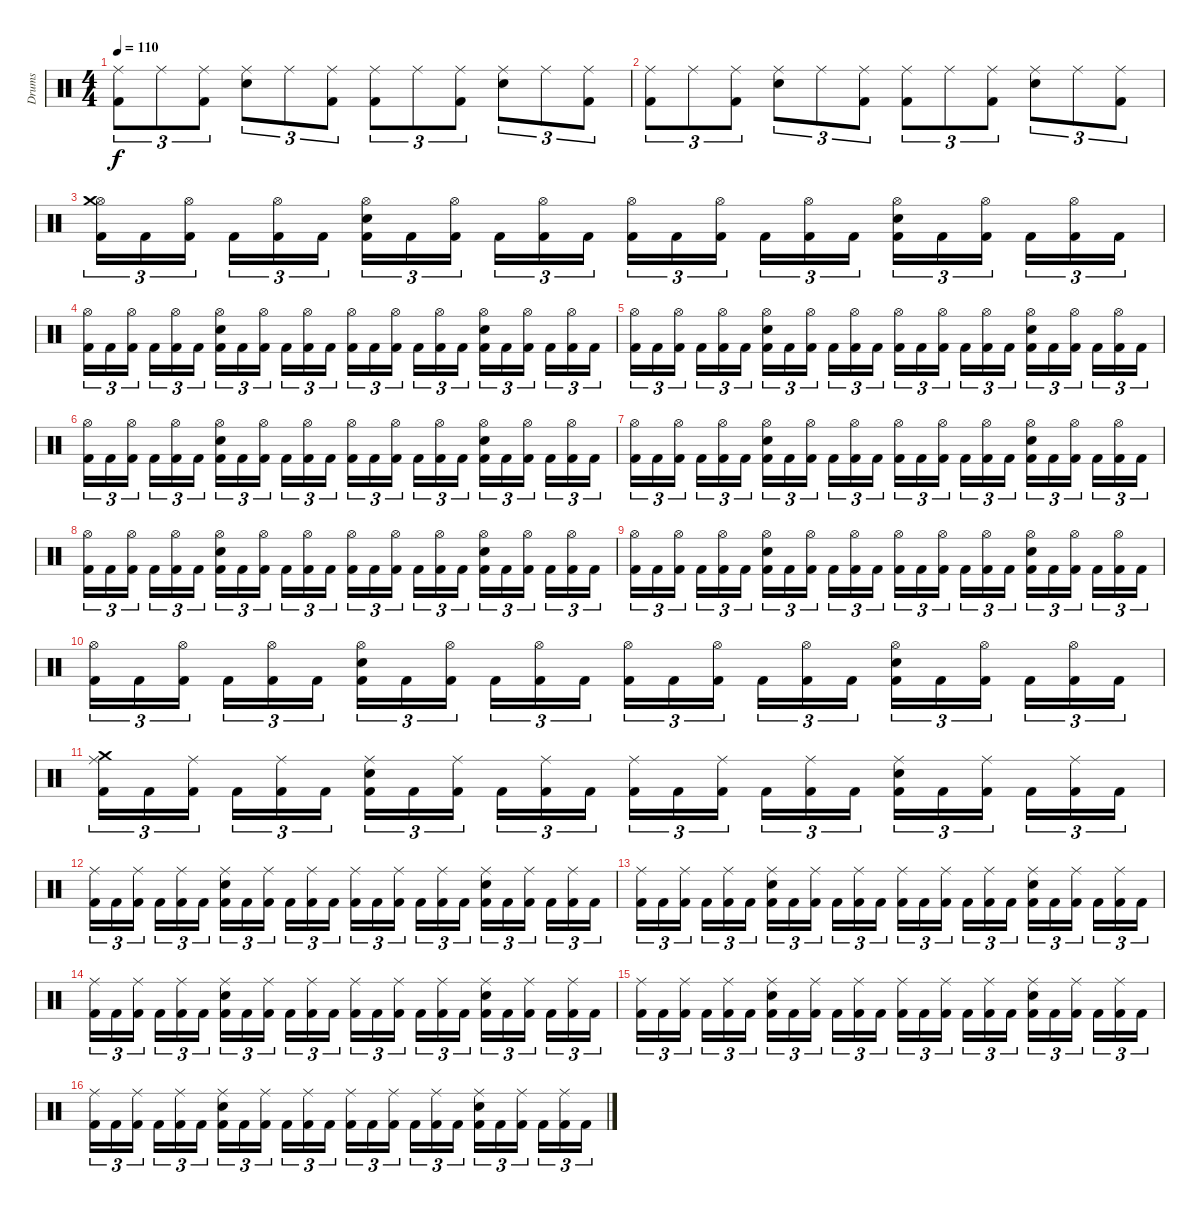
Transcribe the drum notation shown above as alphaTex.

\track ("Drums" "Drums") {instrument percussion}
\staff {score}
\articulation defaults
\ts (4 4)
\tempo 110
\clef neutral
\ks c
("Kick (hit) 2" "Ride (middle)").8{tu (3 2) dy f} "Ride (middle)".8{tu (3 2)} ("Kick (hit) 2" "Ride (middle)").8{tu (3 2)} ("Snare (hit) 2" "Ride (middle)").8{tu (3 2)} "Ride (middle)".8{tu (3 2)} ("Kick (hit) 2" "Ride (middle)").8{tu (3 2)} ("Kick (hit) 2" "Ride (middle)").8{tu (3 2)} "Ride (middle)".8{tu (3 2)} ("Kick (hit) 2" "Ride (middle)").8{tu (3 2)} ("Snare (hit) 2" "Ride (middle)").8{tu (3 2)} "Ride (middle)".8{tu (3 2)} ("Kick (hit) 2" "Ride (middle)").8{tu (3 2)} |
("Kick (hit) 2" "Ride (middle)").8{tu (3 2)} "Ride (middle)".8{tu (3 2)} ("Kick (hit) 2" "Ride (middle)").8{tu (3 2)} ("Snare (hit) 2" "Ride (middle)").8{tu (3 2)} "Ride (middle)".8{tu (3 2)} ("Kick (hit) 2" "Ride (middle)").8{tu (3 2)} ("Kick (hit) 2" "Ride (middle)").8{tu (3 2)} "Ride (middle)".8{tu (3 2)} ("Kick (hit) 2" "Ride (middle)").8{tu (3 2)} ("Snare (hit) 2" "Ride (middle)").8{tu (3 2)} "Ride (middle)".8{tu (3 2)} ("Kick (hit) 2" "Ride (middle)").8{tu (3 2)} |
("Kick (hit) 2" "Hi-Hat (open)" "Crash medium (hit)").16{tu (3 2)} "Kick (hit) 2".16{tu (3 2)} ("Kick (hit) 2" "Hi-Hat (open)").16{tu (3 2)} "Kick (hit) 2".16{tu (3 2)} ("Kick (hit) 2" "Hi-Hat (open)").16{tu (3 2)} "Kick (hit) 2".16{tu (3 2)} ("Kick (hit) 2" "Snare (hit) 2" "Hi-Hat (open)").16{tu (3 2)} "Kick (hit) 2".16{tu (3 2)} ("Kick (hit) 2" "Hi-Hat (open)").16{tu (3 2)} "Kick (hit) 2".16{tu (3 2)} ("Kick (hit) 2" "Hi-Hat (open)").16{tu (3 2)} "Kick (hit) 2".16{tu (3 2)} ("Kick (hit) 2" "Hi-Hat (open)").16{tu (3 2)} "Kick (hit) 2".16{tu (3 2)} ("Kick (hit) 2" "Hi-Hat (open)").16{tu (3 2)} "Kick (hit) 2".16{tu (3 2)} ("Kick (hit) 2" "Hi-Hat (open)").16{tu (3 2)} "Kick (hit) 2".16{tu (3 2)} ("Kick (hit) 2" "Snare (hit) 2" "Hi-Hat (open)").16{tu (3 2)} "Kick (hit) 2".16{tu (3 2)} ("Kick (hit) 2" "Hi-Hat (open)").16{tu (3 2)} "Kick (hit) 2".16{tu (3 2)} ("Kick (hit) 2" "Hi-Hat (open)").16{tu (3 2)} "Kick (hit) 2".16{tu (3 2)} |
("Kick (hit) 2" "Hi-Hat (open)").16{tu (3 2)} "Kick (hit) 2".16{tu (3 2)} ("Kick (hit) 2" "Hi-Hat (open)").16{tu (3 2)} "Kick (hit) 2".16{tu (3 2)} ("Kick (hit) 2" "Hi-Hat (open)").16{tu (3 2)} "Kick (hit) 2".16{tu (3 2)} ("Kick (hit) 2" "Snare (hit) 2" "Hi-Hat (open)").16{tu (3 2)} "Kick (hit) 2".16{tu (3 2)} ("Kick (hit) 2" "Hi-Hat (open)").16{tu (3 2)} "Kick (hit) 2".16{tu (3 2)} ("Kick (hit) 2" "Hi-Hat (open)").16{tu (3 2)} "Kick (hit) 2".16{tu (3 2)} ("Kick (hit) 2" "Hi-Hat (open)").16{tu (3 2)} "Kick (hit) 2".16{tu (3 2)} ("Kick (hit) 2" "Hi-Hat (open)").16{tu (3 2)} "Kick (hit) 2".16{tu (3 2)} ("Kick (hit) 2" "Hi-Hat (open)").16{tu (3 2)} "Kick (hit) 2".16{tu (3 2)} ("Kick (hit) 2" "Snare (hit) 2" "Hi-Hat (open)").16{tu (3 2)} "Kick (hit) 2".16{tu (3 2)} ("Kick (hit) 2" "Hi-Hat (open)").16{tu (3 2)} "Kick (hit) 2".16{tu (3 2)} ("Kick (hit) 2" "Hi-Hat (open)").16{tu (3 2)} "Kick (hit) 2".16{tu (3 2)} |
("Kick (hit) 2" "Hi-Hat (open)").16{tu (3 2)} "Kick (hit) 2".16{tu (3 2)} ("Kick (hit) 2" "Hi-Hat (open)").16{tu (3 2)} "Kick (hit) 2".16{tu (3 2)} ("Kick (hit) 2" "Hi-Hat (open)").16{tu (3 2)} "Kick (hit) 2".16{tu (3 2)} ("Kick (hit) 2" "Snare (hit) 2" "Hi-Hat (open)").16{tu (3 2)} "Kick (hit) 2".16{tu (3 2)} ("Kick (hit) 2" "Hi-Hat (open)").16{tu (3 2)} "Kick (hit) 2".16{tu (3 2)} ("Kick (hit) 2" "Hi-Hat (open)").16{tu (3 2)} "Kick (hit) 2".16{tu (3 2)} ("Kick (hit) 2" "Hi-Hat (open)").16{tu (3 2)} "Kick (hit) 2".16{tu (3 2)} ("Kick (hit) 2" "Hi-Hat (open)").16{tu (3 2)} "Kick (hit) 2".16{tu (3 2)} ("Kick (hit) 2" "Hi-Hat (open)").16{tu (3 2)} "Kick (hit) 2".16{tu (3 2)} ("Kick (hit) 2" "Snare (hit) 2" "Hi-Hat (open)").16{tu (3 2)} "Kick (hit) 2".16{tu (3 2)} ("Kick (hit) 2" "Hi-Hat (open)").16{tu (3 2)} "Kick (hit) 2".16{tu (3 2)} ("Kick (hit) 2" "Hi-Hat (open)").16{tu (3 2)} "Kick (hit) 2".16{tu (3 2)} |
("Kick (hit) 2" "Hi-Hat (open)").16{tu (3 2)} "Kick (hit) 2".16{tu (3 2)} ("Kick (hit) 2" "Hi-Hat (open)").16{tu (3 2)} "Kick (hit) 2".16{tu (3 2)} ("Kick (hit) 2" "Hi-Hat (open)").16{tu (3 2)} "Kick (hit) 2".16{tu (3 2)} ("Kick (hit) 2" "Snare (hit) 2" "Hi-Hat (open)").16{tu (3 2)} "Kick (hit) 2".16{tu (3 2)} ("Kick (hit) 2" "Hi-Hat (open)").16{tu (3 2)} "Kick (hit) 2".16{tu (3 2)} ("Kick (hit) 2" "Hi-Hat (open)").16{tu (3 2)} "Kick (hit) 2".16{tu (3 2)} ("Kick (hit) 2" "Hi-Hat (open)").16{tu (3 2)} "Kick (hit) 2".16{tu (3 2)} ("Kick (hit) 2" "Hi-Hat (open)").16{tu (3 2)} "Kick (hit) 2".16{tu (3 2)} ("Kick (hit) 2" "Hi-Hat (open)").16{tu (3 2)} "Kick (hit) 2".16{tu (3 2)} ("Kick (hit) 2" "Snare (hit) 2" "Hi-Hat (open)").16{tu (3 2)} "Kick (hit) 2".16{tu (3 2)} ("Kick (hit) 2" "Hi-Hat (open)").16{tu (3 2)} "Kick (hit) 2".16{tu (3 2)} ("Kick (hit) 2" "Hi-Hat (open)").16{tu (3 2)} "Kick (hit) 2".16{tu (3 2)} |
("Kick (hit) 2" "Hi-Hat (open)").16{tu (3 2)} "Kick (hit) 2".16{tu (3 2)} ("Kick (hit) 2" "Hi-Hat (open)").16{tu (3 2)} "Kick (hit) 2".16{tu (3 2)} ("Kick (hit) 2" "Hi-Hat (open)").16{tu (3 2)} "Kick (hit) 2".16{tu (3 2)} ("Kick (hit) 2" "Snare (hit) 2" "Hi-Hat (open)").16{tu (3 2)} "Kick (hit) 2".16{tu (3 2)} ("Kick (hit) 2" "Hi-Hat (open)").16{tu (3 2)} "Kick (hit) 2".16{tu (3 2)} ("Kick (hit) 2" "Hi-Hat (open)").16{tu (3 2)} "Kick (hit) 2".16{tu (3 2)} ("Kick (hit) 2" "Hi-Hat (open)").16{tu (3 2)} "Kick (hit) 2".16{tu (3 2)} ("Kick (hit) 2" "Hi-Hat (open)").16{tu (3 2)} "Kick (hit) 2".16{tu (3 2)} ("Kick (hit) 2" "Hi-Hat (open)").16{tu (3 2)} "Kick (hit) 2".16{tu (3 2)} ("Kick (hit) 2" "Snare (hit) 2" "Hi-Hat (open)").16{tu (3 2)} "Kick (hit) 2".16{tu (3 2)} ("Kick (hit) 2" "Hi-Hat (open)").16{tu (3 2)} "Kick (hit) 2".16{tu (3 2)} ("Kick (hit) 2" "Hi-Hat (open)").16{tu (3 2)} "Kick (hit) 2".16{tu (3 2)} |
("Kick (hit) 2" "Hi-Hat (open)").16{tu (3 2)} "Kick (hit) 2".16{tu (3 2)} ("Kick (hit) 2" "Hi-Hat (open)").16{tu (3 2)} "Kick (hit) 2".16{tu (3 2)} ("Kick (hit) 2" "Hi-Hat (open)").16{tu (3 2)} "Kick (hit) 2".16{tu (3 2)} ("Kick (hit) 2" "Snare (hit) 2" "Hi-Hat (open)").16{tu (3 2)} "Kick (hit) 2".16{tu (3 2)} ("Kick (hit) 2" "Hi-Hat (open)").16{tu (3 2)} "Kick (hit) 2".16{tu (3 2)} ("Kick (hit) 2" "Hi-Hat (open)").16{tu (3 2)} "Kick (hit) 2".16{tu (3 2)} ("Kick (hit) 2" "Hi-Hat (open)").16{tu (3 2)} "Kick (hit) 2".16{tu (3 2)} ("Kick (hit) 2" "Hi-Hat (open)").16{tu (3 2)} "Kick (hit) 2".16{tu (3 2)} ("Kick (hit) 2" "Hi-Hat (open)").16{tu (3 2)} "Kick (hit) 2".16{tu (3 2)} ("Kick (hit) 2" "Snare (hit) 2" "Hi-Hat (open)").16{tu (3 2)} "Kick (hit) 2".16{tu (3 2)} ("Kick (hit) 2" "Hi-Hat (open)").16{tu (3 2)} "Kick (hit) 2".16{tu (3 2)} ("Kick (hit) 2" "Hi-Hat (open)").16{tu (3 2)} "Kick (hit) 2".16{tu (3 2)} |
("Kick (hit) 2" "Hi-Hat (open)").16{tu (3 2)} "Kick (hit) 2".16{tu (3 2)} ("Kick (hit) 2" "Hi-Hat (open)").16{tu (3 2)} "Kick (hit) 2".16{tu (3 2)} ("Kick (hit) 2" "Hi-Hat (open)").16{tu (3 2)} "Kick (hit) 2".16{tu (3 2)} ("Kick (hit) 2" "Snare (hit) 2" "Hi-Hat (open)").16{tu (3 2)} "Kick (hit) 2".16{tu (3 2)} ("Kick (hit) 2" "Hi-Hat (open)").16{tu (3 2)} "Kick (hit) 2".16{tu (3 2)} ("Kick (hit) 2" "Hi-Hat (open)").16{tu (3 2)} "Kick (hit) 2".16{tu (3 2)} ("Kick (hit) 2" "Hi-Hat (open)").16{tu (3 2)} "Kick (hit) 2".16{tu (3 2)} ("Kick (hit) 2" "Hi-Hat (open)").16{tu (3 2)} "Kick (hit) 2".16{tu (3 2)} ("Kick (hit) 2" "Hi-Hat (open)").16{tu (3 2)} "Kick (hit) 2".16{tu (3 2)} ("Kick (hit) 2" "Snare (hit) 2" "Hi-Hat (open)").16{tu (3 2)} "Kick (hit) 2".16{tu (3 2)} ("Kick (hit) 2" "Hi-Hat (open)").16{tu (3 2)} "Kick (hit) 2".16{tu (3 2)} ("Kick (hit) 2" "Hi-Hat (open)").16{tu (3 2)} "Kick (hit) 2".16{tu (3 2)} |
("Kick (hit) 2" "Hi-Hat (open)").16{tu (3 2)} "Kick (hit) 2".16{tu (3 2)} ("Kick (hit) 2" "Hi-Hat (open)").16{tu (3 2)} "Kick (hit) 2".16{tu (3 2)} ("Kick (hit) 2" "Hi-Hat (open)").16{tu (3 2)} "Kick (hit) 2".16{tu (3 2)} ("Kick (hit) 2" "Snare (hit) 2" "Hi-Hat (open)").16{tu (3 2)} "Kick (hit) 2".16{tu (3 2)} ("Kick (hit) 2" "Hi-Hat (open)").16{tu (3 2)} "Kick (hit) 2".16{tu (3 2)} ("Kick (hit) 2" "Hi-Hat (open)").16{tu (3 2)} "Kick (hit) 2".16{tu (3 2)} ("Kick (hit) 2" "Hi-Hat (open)").16{tu (3 2)} "Kick (hit) 2".16{tu (3 2)} ("Kick (hit) 2" "Hi-Hat (open)").16{tu (3 2)} "Kick (hit) 2".16{tu (3 2)} ("Kick (hit) 2" "Hi-Hat (open)").16{tu (3 2)} "Kick (hit) 2".16{tu (3 2)} ("Kick (hit) 2" "Snare (hit) 2" "Hi-Hat (open)").16{tu (3 2)} "Kick (hit) 2".16{tu (3 2)} ("Kick (hit) 2" "Hi-Hat (open)").16{tu (3 2)} "Kick (hit) 2".16{tu (3 2)} ("Kick (hit) 2" "Hi-Hat (open)").16{tu (3 2)} "Kick (hit) 2".16{tu (3 2)} |
("Kick (hit) 2" "Ride (middle)" "Crash medium (hit)").16{tu (3 2) volume 14} "Kick (hit) 2".16{tu (3 2)} ("Kick (hit) 2" "Ride (middle)").16{tu (3 2)} "Kick (hit) 2".16{tu (3 2)} ("Kick (hit) 2" "Ride (middle)").16{tu (3 2)} "Kick (hit) 2".16{tu (3 2)} ("Kick (hit) 2" "Snare (hit) 2" "Ride (middle)").16{tu (3 2)} "Kick (hit) 2".16{tu (3 2)} ("Kick (hit) 2" "Ride (middle)").16{tu (3 2)} "Kick (hit) 2".16{tu (3 2)} ("Kick (hit) 2" "Ride (middle)").16{tu (3 2)} "Kick (hit) 2".16{tu (3 2)} ("Kick (hit) 2" "Ride (middle)").16{tu (3 2)} "Kick (hit) 2".16{tu (3 2)} ("Kick (hit) 2" "Ride (middle)").16{tu (3 2)} "Kick (hit) 2".16{tu (3 2)} ("Kick (hit) 2" "Ride (middle)").16{tu (3 2)} "Kick (hit) 2".16{tu (3 2)} ("Kick (hit) 2" "Snare (hit) 2" "Ride (middle)").16{tu (3 2)} "Kick (hit) 2".16{tu (3 2)} ("Kick (hit) 2" "Ride (middle)").16{tu (3 2)} "Kick (hit) 2".16{tu (3 2)} ("Kick (hit) 2" "Ride (middle)").16{tu (3 2)} "Kick (hit) 2".16{tu (3 2)} |
("Kick (hit) 2" "Ride (middle)").16{tu (3 2)} "Kick (hit) 2".16{tu (3 2)} ("Kick (hit) 2" "Ride (middle)").16{tu (3 2)} "Kick (hit) 2".16{tu (3 2)} ("Kick (hit) 2" "Ride (middle)").16{tu (3 2)} "Kick (hit) 2".16{tu (3 2)} ("Kick (hit) 2" "Snare (hit) 2" "Ride (middle)").16{tu (3 2)} "Kick (hit) 2".16{tu (3 2)} ("Kick (hit) 2" "Ride (middle)").16{tu (3 2)} "Kick (hit) 2".16{tu (3 2)} ("Kick (hit) 2" "Ride (middle)").16{tu (3 2)} "Kick (hit) 2".16{tu (3 2)} ("Kick (hit) 2" "Ride (middle)").16{tu (3 2)} "Kick (hit) 2".16{tu (3 2)} ("Kick (hit) 2" "Ride (middle)").16{tu (3 2)} "Kick (hit) 2".16{tu (3 2)} ("Kick (hit) 2" "Ride (middle)").16{tu (3 2)} "Kick (hit) 2".16{tu (3 2)} ("Kick (hit) 2" "Snare (hit) 2" "Ride (middle)").16{tu (3 2)} "Kick (hit) 2".16{tu (3 2)} ("Kick (hit) 2" "Ride (middle)").16{tu (3 2)} "Kick (hit) 2".16{tu (3 2)} ("Kick (hit) 2" "Ride (middle)").16{tu (3 2)} "Kick (hit) 2".16{tu (3 2)} |
("Kick (hit) 2" "Ride (middle)").16{tu (3 2) volume 12} "Kick (hit) 2".16{tu (3 2)} ("Kick (hit) 2" "Ride (middle)").16{tu (3 2)} "Kick (hit) 2".16{tu (3 2)} ("Kick (hit) 2" "Ride (middle)").16{tu (3 2)} "Kick (hit) 2".16{tu (3 2)} ("Kick (hit) 2" "Snare (hit) 2" "Ride (middle)").16{tu (3 2)} "Kick (hit) 2".16{tu (3 2)} ("Kick (hit) 2" "Ride (middle)").16{tu (3 2)} "Kick (hit) 2".16{tu (3 2)} ("Kick (hit) 2" "Ride (middle)").16{tu (3 2)} "Kick (hit) 2".16{tu (3 2)} ("Kick (hit) 2" "Ride (middle)").16{tu (3 2)} "Kick (hit) 2".16{tu (3 2)} ("Kick (hit) 2" "Ride (middle)").16{tu (3 2)} "Kick (hit) 2".16{tu (3 2)} ("Kick (hit) 2" "Ride (middle)").16{tu (3 2)} "Kick (hit) 2".16{tu (3 2)} ("Kick (hit) 2" "Snare (hit) 2" "Ride (middle)").16{tu (3 2)} "Kick (hit) 2".16{tu (3 2)} ("Kick (hit) 2" "Ride (middle)").16{tu (3 2)} "Kick (hit) 2".16{tu (3 2)} ("Kick (hit) 2" "Ride (middle)").16{tu (3 2)} "Kick (hit) 2".16{tu (3 2)} |
("Kick (hit) 2" "Ride (middle)").16{tu (3 2)} "Kick (hit) 2".16{tu (3 2)} ("Kick (hit) 2" "Ride (middle)").16{tu (3 2)} "Kick (hit) 2".16{tu (3 2)} ("Kick (hit) 2" "Ride (middle)").16{tu (3 2)} "Kick (hit) 2".16{tu (3 2)} ("Kick (hit) 2" "Snare (hit) 2" "Ride (middle)").16{tu (3 2)} "Kick (hit) 2".16{tu (3 2)} ("Kick (hit) 2" "Ride (middle)").16{tu (3 2)} "Kick (hit) 2".16{tu (3 2)} ("Kick (hit) 2" "Ride (middle)").16{tu (3 2)} "Kick (hit) 2".16{tu (3 2)} ("Kick (hit) 2" "Ride (middle)").16{tu (3 2)} "Kick (hit) 2".16{tu (3 2)} ("Kick (hit) 2" "Ride (middle)").16{tu (3 2)} "Kick (hit) 2".16{tu (3 2)} ("Kick (hit) 2" "Ride (middle)").16{tu (3 2)} "Kick (hit) 2".16{tu (3 2)} ("Kick (hit) 2" "Snare (hit) 2" "Ride (middle)").16{tu (3 2)} "Kick (hit) 2".16{tu (3 2)} ("Kick (hit) 2" "Ride (middle)").16{tu (3 2)} "Kick (hit) 2".16{tu (3 2)} ("Kick (hit) 2" "Ride (middle)").16{tu (3 2)} "Kick (hit) 2".16{tu (3 2)} |
("Kick (hit) 2" "Ride (middle)").16{tu (3 2) volume 10} "Kick (hit) 2".16{tu (3 2)} ("Kick (hit) 2" "Ride (middle)").16{tu (3 2)} "Kick (hit) 2".16{tu (3 2)} ("Kick (hit) 2" "Ride (middle)").16{tu (3 2)} "Kick (hit) 2".16{tu (3 2)} ("Kick (hit) 2" "Snare (hit) 2" "Ride (middle)").16{tu (3 2)} "Kick (hit) 2".16{tu (3 2)} ("Kick (hit) 2" "Ride (middle)").16{tu (3 2)} "Kick (hit) 2".16{tu (3 2)} ("Kick (hit) 2" "Ride (middle)").16{tu (3 2)} "Kick (hit) 2".16{tu (3 2)} ("Kick (hit) 2" "Ride (middle)").16{tu (3 2)} "Kick (hit) 2".16{tu (3 2)} ("Kick (hit) 2" "Ride (middle)").16{tu (3 2)} "Kick (hit) 2".16{tu (3 2)} ("Kick (hit) 2" "Ride (middle)").16{tu (3 2)} "Kick (hit) 2".16{tu (3 2)} ("Kick (hit) 2" "Snare (hit) 2" "Ride (middle)").16{tu (3 2)} "Kick (hit) 2".16{tu (3 2)} ("Kick (hit) 2" "Ride (middle)").16{tu (3 2)} "Kick (hit) 2".16{tu (3 2)} ("Kick (hit) 2" "Ride (middle)").16{tu (3 2)} "Kick (hit) 2".16{tu (3 2)} |
("Kick (hit) 2" "Ride (middle)").16{tu (3 2)} "Kick (hit) 2".16{tu (3 2)} ("Kick (hit) 2" "Ride (middle)").16{tu (3 2)} "Kick (hit) 2".16{tu (3 2)} ("Kick (hit) 2" "Ride (middle)").16{tu (3 2)} "Kick (hit) 2".16{tu (3 2)} ("Kick (hit) 2" "Snare (hit) 2" "Ride (middle)").16{tu (3 2)} "Kick (hit) 2".16{tu (3 2)} ("Kick (hit) 2" "Ride (middle)").16{tu (3 2)} "Kick (hit) 2".16{tu (3 2)} ("Kick (hit) 2" "Ride (middle)").16{tu (3 2)} "Kick (hit) 2".16{tu (3 2)} ("Kick (hit) 2" "Ride (middle)").16{tu (3 2)} "Kick (hit) 2".16{tu (3 2)} ("Kick (hit) 2" "Ride (middle)").16{tu (3 2)} "Kick (hit) 2".16{tu (3 2)} ("Kick (hit) 2" "Ride (middle)").16{tu (3 2)} "Kick (hit) 2".16{tu (3 2)} ("Kick (hit) 2" "Snare (hit) 2" "Ride (middle)").16{tu (3 2)} "Kick (hit) 2".16{tu (3 2)} ("Kick (hit) 2" "Ride (middle)").16{tu (3 2)} "Kick (hit) 2".16{tu (3 2)} ("Kick (hit) 2" "Ride (middle)").16{tu (3 2)} "Kick (hit) 2".16{tu (3 2)}
